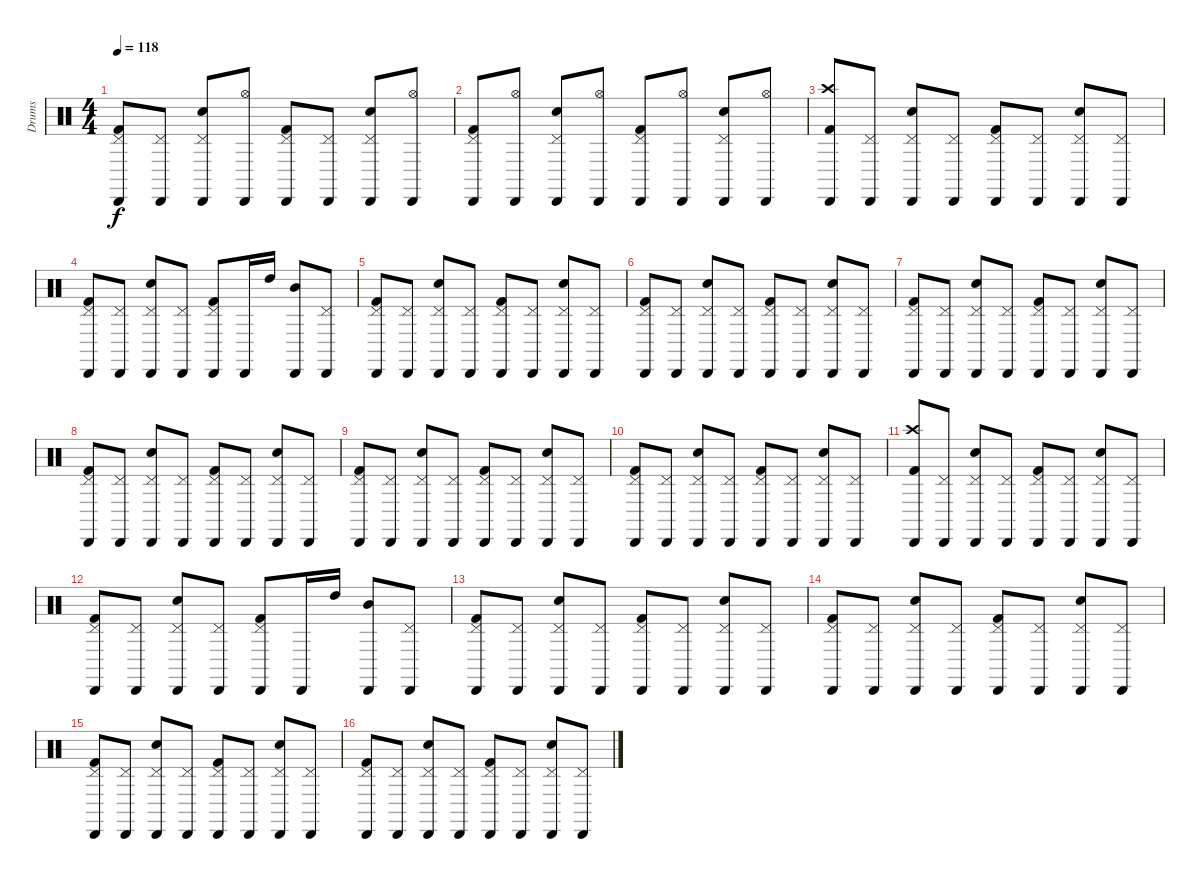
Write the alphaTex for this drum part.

\track ("Drums" "Drums") {instrument percussion}
\staff {score}
\articulation defaults
\ts (4 4)
\tempo 118
\clef neutral
\ks c
("Kick (hit) 2" "Pedal Hi-Hat (hit)" "Cabasa (hit)").8{dy f} ("Pedal Hi-Hat (hit)" "Cabasa (hit)").8 ("Pedal Hi-Hat (hit)" "Electric Snare (hit)" "Cabasa (hit)").8 ("Hi-Hat (open)" "Cabasa (hit)").8 ("Kick (hit) 2" "Pedal Hi-Hat (hit)" "Cabasa (hit)").8 ("Pedal Hi-Hat (hit)" "Cabasa (hit)").8 ("Pedal Hi-Hat (hit)" "Electric Snare (hit)" "Cabasa (hit)").8 ("Hi-Hat (open)" "Cabasa (hit)").8 |
("Kick (hit) 2" "Pedal Hi-Hat (hit)" "Cabasa (hit)").8 ("Hi-Hat (open)" "Cabasa (hit)").8 ("Pedal Hi-Hat (hit)" "Electric Snare (hit)" "Cabasa (hit)").8 ("Hi-Hat (open)" "Cabasa (hit)").8 ("Kick (hit) 2" "Pedal Hi-Hat (hit)" "Cabasa (hit)").8 ("Hi-Hat (open)" "Cabasa (hit)").8 ("Pedal Hi-Hat (hit)" "Electric Snare (hit)" "Cabasa (hit)").8 ("Hi-Hat (open)" "Cabasa (hit)").8 |
("Kick (hit) 2" "Crash high (hit)" "Cabasa (hit)").8 ("Pedal Hi-Hat (hit)" "Cabasa (hit)").8 ("Pedal Hi-Hat (hit)" "Electric Snare (hit)" "Cabasa (hit)").8 ("Pedal Hi-Hat (hit)" "Cabasa (hit)").8 ("Kick (hit) 2" "Pedal Hi-Hat (hit)" "Cabasa (hit)").8 ("Pedal Hi-Hat (hit)" "Cabasa (hit)").8 ("Pedal Hi-Hat (hit)" "Electric Snare (hit)" "Cabasa (hit)").8 ("Pedal Hi-Hat (hit)" "Cabasa (hit)").8 |
("Kick (hit) 2" "Pedal Hi-Hat (hit)" "Cabasa (hit)").8 ("Pedal Hi-Hat (hit)" "Cabasa (hit)").8 ("Pedal Hi-Hat (hit)" "Electric Snare (hit)" "Cabasa (hit)").8 ("Pedal Hi-Hat (hit)" "Cabasa (hit)").8 ("Kick (hit) 2" "Pedal Hi-Hat (hit)" "Cabasa (hit)").8 "Cabasa (hit)".16 "High Tom (hit)".16 ("Mid Tom (hit)" "Cabasa (hit)").8 ("Pedal Hi-Hat (hit)" "Cabasa (hit)").8 |
("Kick (hit) 2" "Pedal Hi-Hat (hit)" "Cabasa (hit)").8 ("Pedal Hi-Hat (hit)" "Cabasa (hit)").8 ("Pedal Hi-Hat (hit)" "Electric Snare (hit)" "Cabasa (hit)").8 ("Pedal Hi-Hat (hit)" "Cabasa (hit)").8 ("Kick (hit) 2" "Pedal Hi-Hat (hit)" "Cabasa (hit)").8 ("Pedal Hi-Hat (hit)" "Cabasa (hit)").8 ("Pedal Hi-Hat (hit)" "Electric Snare (hit)" "Cabasa (hit)").8 ("Pedal Hi-Hat (hit)" "Cabasa (hit)").8 |
("Kick (hit) 2" "Pedal Hi-Hat (hit)" "Cabasa (hit)").8 ("Pedal Hi-Hat (hit)" "Cabasa (hit)").8 ("Pedal Hi-Hat (hit)" "Electric Snare (hit)" "Cabasa (hit)").8 ("Pedal Hi-Hat (hit)" "Cabasa (hit)").8 ("Kick (hit) 2" "Pedal Hi-Hat (hit)" "Cabasa (hit)").8 ("Pedal Hi-Hat (hit)" "Cabasa (hit)").8 ("Pedal Hi-Hat (hit)" "Electric Snare (hit)" "Cabasa (hit)").8 ("Pedal Hi-Hat (hit)" "Cabasa (hit)").8 |
("Kick (hit) 2" "Pedal Hi-Hat (hit)" "Cabasa (hit)").8 ("Pedal Hi-Hat (hit)" "Cabasa (hit)").8 ("Pedal Hi-Hat (hit)" "Electric Snare (hit)" "Cabasa (hit)").8 ("Pedal Hi-Hat (hit)" "Cabasa (hit)").8 ("Kick (hit) 2" "Pedal Hi-Hat (hit)" "Cabasa (hit)").8 ("Pedal Hi-Hat (hit)" "Cabasa (hit)").8 ("Pedal Hi-Hat (hit)" "Electric Snare (hit)" "Cabasa (hit)").8 ("Pedal Hi-Hat (hit)" "Cabasa (hit)").8 |
("Kick (hit) 2" "Pedal Hi-Hat (hit)" "Cabasa (hit)").8 ("Pedal Hi-Hat (hit)" "Cabasa (hit)").8 ("Pedal Hi-Hat (hit)" "Electric Snare (hit)" "Cabasa (hit)").8 ("Pedal Hi-Hat (hit)" "Cabasa (hit)").8 ("Kick (hit) 2" "Pedal Hi-Hat (hit)" "Cabasa (hit)").8 ("Pedal Hi-Hat (hit)" "Cabasa (hit)").8 ("Pedal Hi-Hat (hit)" "Electric Snare (hit)" "Cabasa (hit)").8 ("Pedal Hi-Hat (hit)" "Cabasa (hit)").8 |
("Kick (hit) 2" "Pedal Hi-Hat (hit)" "Cabasa (hit)").8 ("Pedal Hi-Hat (hit)" "Cabasa (hit)").8 ("Pedal Hi-Hat (hit)" "Electric Snare (hit)" "Cabasa (hit)").8 ("Pedal Hi-Hat (hit)" "Cabasa (hit)").8 ("Kick (hit) 2" "Pedal Hi-Hat (hit)" "Cabasa (hit)").8 ("Pedal Hi-Hat (hit)" "Cabasa (hit)").8 ("Pedal Hi-Hat (hit)" "Electric Snare (hit)" "Cabasa (hit)").8 ("Pedal Hi-Hat (hit)" "Cabasa (hit)").8 |
("Kick (hit) 2" "Pedal Hi-Hat (hit)" "Cabasa (hit)").8 ("Pedal Hi-Hat (hit)" "Cabasa (hit)").8 ("Pedal Hi-Hat (hit)" "Electric Snare (hit)" "Cabasa (hit)").8 ("Pedal Hi-Hat (hit)" "Cabasa (hit)").8 ("Kick (hit) 2" "Pedal Hi-Hat (hit)" "Cabasa (hit)").8 ("Pedal Hi-Hat (hit)" "Cabasa (hit)").8 ("Pedal Hi-Hat (hit)" "Electric Snare (hit)" "Cabasa (hit)").8 ("Pedal Hi-Hat (hit)" "Cabasa (hit)").8 |
("Kick (hit) 2" "Crash high (hit)" "Cabasa (hit)").8 ("Pedal Hi-Hat (hit)" "Cabasa (hit)").8 ("Pedal Hi-Hat (hit)" "Electric Snare (hit)" "Cabasa (hit)").8 ("Pedal Hi-Hat (hit)" "Cabasa (hit)").8 ("Kick (hit) 2" "Pedal Hi-Hat (hit)" "Cabasa (hit)").8 ("Pedal Hi-Hat (hit)" "Cabasa (hit)").8 ("Pedal Hi-Hat (hit)" "Electric Snare (hit)" "Cabasa (hit)").8 ("Pedal Hi-Hat (hit)" "Cabasa (hit)").8 |
("Kick (hit) 2" "Pedal Hi-Hat (hit)" "Cabasa (hit)").8 ("Pedal Hi-Hat (hit)" "Cabasa (hit)").8 ("Pedal Hi-Hat (hit)" "Electric Snare (hit)" "Cabasa (hit)").8 ("Pedal Hi-Hat (hit)" "Cabasa (hit)").8 ("Kick (hit) 2" "Pedal Hi-Hat (hit)" "Cabasa (hit)").8 "Cabasa (hit)".16 "High Tom (hit)".16 ("Mid Tom (hit)" "Cabasa (hit)").8 ("Pedal Hi-Hat (hit)" "Cabasa (hit)").8 |
("Kick (hit) 2" "Pedal Hi-Hat (hit)" "Cabasa (hit)").8 ("Pedal Hi-Hat (hit)" "Cabasa (hit)").8 ("Pedal Hi-Hat (hit)" "Electric Snare (hit)" "Cabasa (hit)").8 ("Pedal Hi-Hat (hit)" "Cabasa (hit)").8 ("Kick (hit) 2" "Pedal Hi-Hat (hit)" "Cabasa (hit)").8 ("Pedal Hi-Hat (hit)" "Cabasa (hit)").8 ("Pedal Hi-Hat (hit)" "Electric Snare (hit)" "Cabasa (hit)").8 ("Pedal Hi-Hat (hit)" "Cabasa (hit)").8 |
("Kick (hit) 2" "Pedal Hi-Hat (hit)" "Cabasa (hit)").8 ("Pedal Hi-Hat (hit)" "Cabasa (hit)").8 ("Pedal Hi-Hat (hit)" "Electric Snare (hit)" "Cabasa (hit)").8 ("Pedal Hi-Hat (hit)" "Cabasa (hit)").8 ("Kick (hit) 2" "Pedal Hi-Hat (hit)" "Cabasa (hit)").8 ("Pedal Hi-Hat (hit)" "Cabasa (hit)").8 ("Pedal Hi-Hat (hit)" "Electric Snare (hit)" "Cabasa (hit)").8 ("Pedal Hi-Hat (hit)" "Cabasa (hit)").8 |
("Kick (hit) 2" "Pedal Hi-Hat (hit)" "Cabasa (hit)").8 ("Pedal Hi-Hat (hit)" "Cabasa (hit)").8 ("Pedal Hi-Hat (hit)" "Electric Snare (hit)" "Cabasa (hit)").8 ("Pedal Hi-Hat (hit)" "Cabasa (hit)").8 ("Kick (hit) 2" "Pedal Hi-Hat (hit)" "Cabasa (hit)").8 ("Pedal Hi-Hat (hit)" "Cabasa (hit)").8 ("Pedal Hi-Hat (hit)" "Electric Snare (hit)" "Cabasa (hit)").8 ("Pedal Hi-Hat (hit)" "Cabasa (hit)").8 |
("Kick (hit) 2" "Pedal Hi-Hat (hit)" "Cabasa (hit)").8 ("Pedal Hi-Hat (hit)" "Cabasa (hit)").8 ("Pedal Hi-Hat (hit)" "Electric Snare (hit)" "Cabasa (hit)").8 ("Pedal Hi-Hat (hit)" "Cabasa (hit)").8 ("Kick (hit) 2" "Pedal Hi-Hat (hit)" "Cabasa (hit)").8 ("Pedal Hi-Hat (hit)" "Cabasa (hit)").8 ("Pedal Hi-Hat (hit)" "Electric Snare (hit)" "Cabasa (hit)").8 ("Pedal Hi-Hat (hit)" "Cabasa (hit)").8
